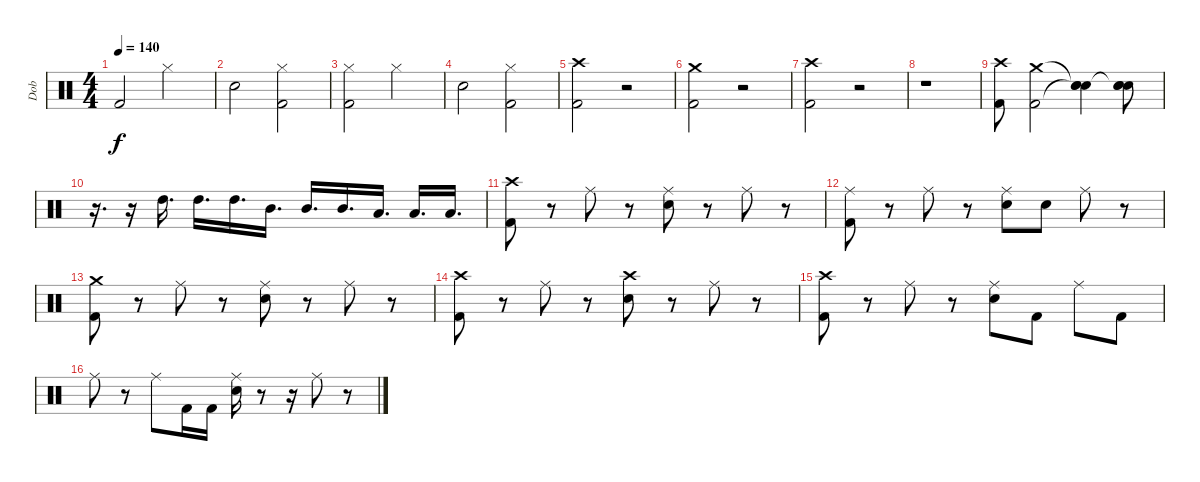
\track ("Dob" "Dob") {instrument percussion}
\staff {score}
\articulation defaults
\ts (4 4)
\tempo 140
\clef neutral
\ks c "Kick (hit) 2".2{dy f} "Hi-Hat (closed)".2
|
"Electric Snare (hit)".2 ("Hi-Hat (closed)" "Kick (hit) 2").2 |
("Hi-Hat (closed)" "Kick (hit) 2").2 "Hi-Hat (closed)".2 |
"Electric Snare (hit)".2 ("Hi-Hat (closed)" "Kick (hit) 2").2 |
("Crash high (hit)" "Kick (hit) 2").2 r.2 |
("Crash medium (hit)" "Kick (hit) 2").2 r.2 |
("Crash high (hit)" "Kick (hit) 2").2 r.2 |
r.1 |
("Crash high (hit)" "Kick (hit) 2").8 ("Crash medium (hit)" "Kick (hit) 2").2 ("Snare (hit)"{t} "Snare (hit)"{t} "Snare (hit)").4 ("Snare (hit)"{t} "Electric Snare (hit)" "Electric Snare (hit)").8{bd 480} |
r.16{d} r.16 "High Tom (hit)".16{d} "High Tom (hit)".16{d} "High Tom (hit)".16{d} "Mid Tom (hit)".16{d} "Mid Tom (hit)".16{d} "Mid Tom (hit)".16{d} "Low Tom (hit)".16{d} "Low Tom (hit)".16{d} "Low Tom (hit)".16{d} |
("Crash high (hit)" "Kick (hit) 2").8 r.8 "Ride (middle)".8 r.8 ("Ride (middle)" "Electric Snare (hit)").8 r.8 "Ride (middle)".8 r.8 |
("Ride (middle)" "Kick (hit) 2").8 r.8 "Ride (middle)".8 r.8 ("Ride (middle)" "Electric Snare (hit)").8 "Electric Snare (hit)".8 "Ride (middle)".8 r.8 |
("Crash medium (hit)" "Kick (hit) 2").8 r.8 "Ride (middle)".8 r.8 ("Ride (middle)" "Electric Snare (hit)").8 r.8 "Ride (middle)".8 r.8 |
("Crash high (hit)" "Kick (hit) 2").8 r.8 "Ride (middle)".8 r.8 ("Crash high (hit)" "Electric Snare (hit)").8 r.8 "Ride (middle)".8 r.8 |
("Crash high (hit)" "Kick (hit) 2").8 r.8 "Ride (middle)".8 r.8 ("Electric Snare (hit)" "Ride (middle)").8 "Kick (hit) 2".8 "Ride (middle)".8 "Kick (hit) 2".8 |
"Ride (middle)".8 r.8 "Ride (middle)".8 "Kick (hit) 2".16 "Kick (hit) 2".16 ("Ride (middle)" "Electric Snare (hit)").16 r.8 r.16 "Ride (middle)".8 r.8
